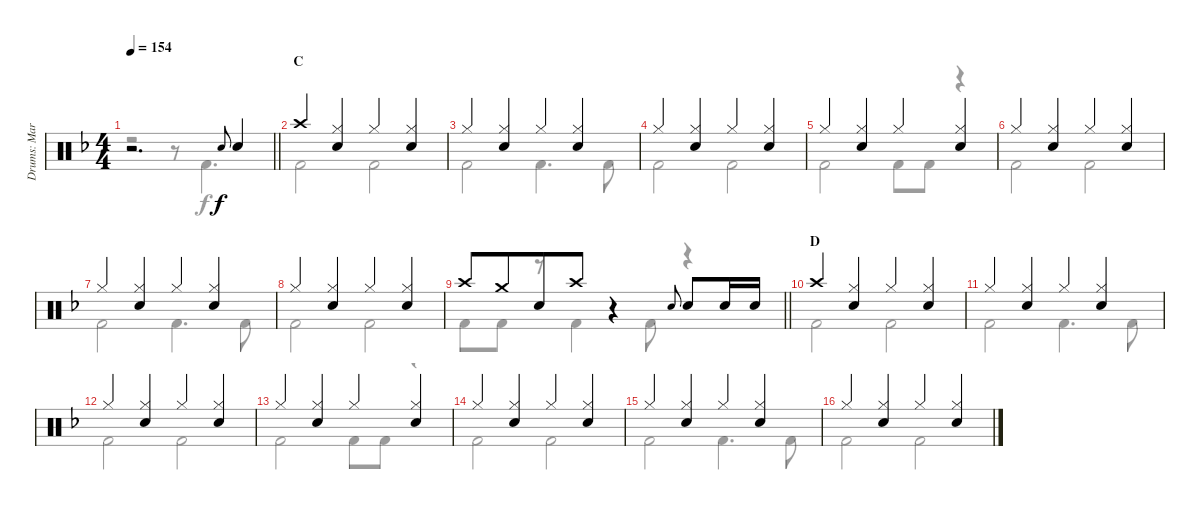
\track ("Drums: Mark" "Drums: Mar") {instrument percussion}
\staff {score}
\articulation defaults
\voice
\ts (4 4)
\tempo 154
\clef neutral
\barLineRight lightlight
\ks f
r.2{d dy f} "Electric Snare (hit)".8{gr onbeat} "Snare (hit) 2".4 |
\section ("" "C")
"Crash high (hit)".4 ("Hi-Hat (closed)" "Snare (hit) 2").4 "Hi-Hat (closed)".4 ("Hi-Hat (closed)" "Snare (hit) 2").4 |
"Hi-Hat (closed)".4 ("Hi-Hat (closed)" "Snare (hit) 2").4 "Hi-Hat (closed)".4 ("Hi-Hat (closed)" "Snare (hit) 2").4 |
"Hi-Hat (closed)".4 ("Hi-Hat (closed)" "Snare (hit) 2").4 "Hi-Hat (closed)".4 ("Hi-Hat (closed)" "Snare (hit) 2").4 |
"Hi-Hat (closed)".4 ("Hi-Hat (closed)" "Snare (hit) 2").4 "Hi-Hat (closed)".4 ("Hi-Hat (closed)" "Snare (hit) 2").4 |
"Hi-Hat (closed)".4 ("Hi-Hat (closed)" "Snare (hit) 2").4 "Hi-Hat (closed)".4 ("Hi-Hat (closed)" "Snare (hit) 2").4 |
"Hi-Hat (closed)".4 ("Hi-Hat (closed)" "Snare (hit) 2").4 "Hi-Hat (closed)".4 ("Hi-Hat (closed)" "Snare (hit) 2").4 |
"Hi-Hat (closed)".4 ("Hi-Hat (closed)" "Snare (hit) 2").4 "Hi-Hat (closed)".4 ("Hi-Hat (closed)" "Snare (hit) 2").4 |
\barLineRight lightlight "Crash high (hit)".8 "Crash medium (hit)".8{beam merge} "Snare (hit) 2".8 "Crash high (hit)".8
r.4 "Electric Snare (hit)".8{gr onbeat} "Snare (hit) 2".8 "Snare (hit) 2".16 "Snare (hit) 2".16 |
\section ("" "D")
"Crash high (hit)".4 ("Hi-Hat (closed)" "Snare (hit) 2").4 "Hi-Hat (closed)".4 ("Hi-Hat (closed)" "Snare (hit) 2").4 |
"Hi-Hat (closed)".4 ("Hi-Hat (closed)" "Snare (hit) 2").4 "Hi-Hat (closed)".4 ("Hi-Hat (closed)" "Snare (hit) 2").4 |
"Hi-Hat (closed)".4 ("Hi-Hat (closed)" "Snare (hit) 2").4 "Hi-Hat (closed)".4 ("Hi-Hat (closed)" "Snare (hit) 2").4 |
"Hi-Hat (closed)".4 ("Hi-Hat (closed)" "Snare (hit) 2").4 "Hi-Hat (closed)".4 ("Hi-Hat (closed)" "Snare (hit) 2").4 |
"Hi-Hat (closed)".4 ("Hi-Hat (closed)" "Snare (hit) 2").4 "Hi-Hat (closed)".4 ("Hi-Hat (closed)" "Snare (hit) 2").4 |
"Hi-Hat (closed)".4 ("Hi-Hat (closed)" "Snare (hit) 2").4 "Hi-Hat (closed)".4 ("Hi-Hat (closed)" "Snare (hit) 2").4 |
"Hi-Hat (closed)".4 ("Hi-Hat (closed)" "Snare (hit) 2").4 "Hi-Hat (closed)".4 ("Hi-Hat (closed)" "Snare (hit) 2").4
\voice
\clef neutral
\ottava regular
\simile none
\barLineRight lightlight
\ks f
r.2{dy f} r.8 "Kick (hit) 2".4{d} |
"Kick (hit) 2".2 "Kick (hit) 2".2 |
"Kick (hit) 2".2 "Kick (hit) 2".4{d} "Kick (hit) 2".8 |
"Kick (hit) 2".2 "Kick (hit) 2".2 |
"Kick (hit) 2".2 "Kick (hit) 2".8 "Kick (hit) 2".8 r.4 |
"Kick (hit) 2".2 "Kick (hit) 2".2 |
"Kick (hit) 2".2 "Kick (hit) 2".4{d} "Kick (hit) 2".8 |
"Kick (hit) 2".2 "Kick (hit) 2".2 |
\barLineRight lightlight "Kick (hit) 2".8 "Kick (hit) 2".8
r.8 "Kick (hit) 2".4 "Kick (hit) 2".8 r.4 |
"Kick (hit) 2".2 "Kick (hit) 2".2 |
"Kick (hit) 2".2 "Kick (hit) 2".4{d} "Kick (hit) 2".8 |
"Kick (hit) 2".2 "Kick (hit) 2".2 |
"Kick (hit) 2".2 "Kick (hit) 2".8 "Kick (hit) 2".8 r.4 |
"Kick (hit) 2".2 "Kick (hit) 2".2 |
"Kick (hit) 2".2 "Kick (hit) 2".4{d} "Kick (hit) 2".8 |
"Kick (hit) 2".2 "Kick (hit) 2".2
